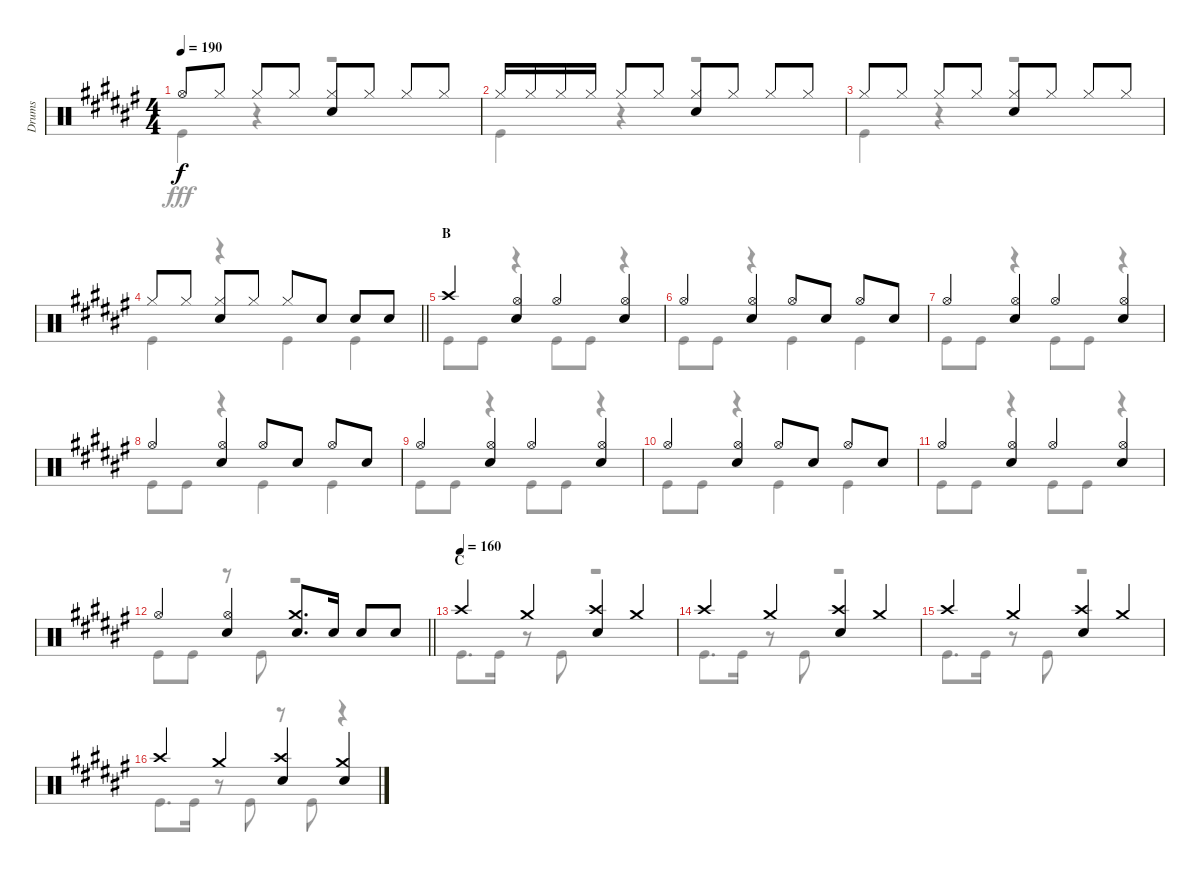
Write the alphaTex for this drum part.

\track ("Drums" "Drums") {instrument percussion}
\staff {score}
\articulation defaults
\voice
\ts (4 4)
\tempo 190
\clef neutral
\ks f# "Hi-Hat (open)".8{dy f} "Hi-Hat (closed)".8 "Hi-Hat (closed)".8 "Hi-Hat (closed)".8
("Hi-Hat (closed)" "Snare (hit) 2").8 "Hi-Hat (closed)".8 "Hi-Hat (closed)".8 "Hi-Hat (closed)".8 |
"Hi-Hat (closed)".16 "Hi-Hat (closed)".16 "Hi-Hat (closed)".16 "Hi-Hat (closed)".16 "Hi-Hat (closed)".8 "Hi-Hat (closed)".8 ("Hi-Hat (closed)" "Snare (hit) 2").8 "Hi-Hat (closed)".8 "Hi-Hat (closed)".8 "Hi-Hat (closed)".8 |
"Hi-Hat (closed)".8 "Hi-Hat (closed)".8 "Hi-Hat (closed)".8 "Hi-Hat (closed)".8 ("Hi-Hat (closed)" "Snare (hit) 2").8 "Hi-Hat (closed)".8 "Hi-Hat (closed)".8 "Hi-Hat (closed)".8 |
\barLineRight lightlight "Hi-Hat (closed)".8 "Hi-Hat (closed)".8
("Hi-Hat (closed)" "Snare (hit) 2").8 "Hi-Hat (closed)".8 "Hi-Hat (closed)".8 "Snare (hit) 2".8 "Snare (hit) 2".8 "Snare (hit) 2".8 |
\section ("" "B")
"Crash high (hit)".4 ("Hi-Hat (open)" "Snare (hit) 2").4 "Hi-Hat (open)".4 ("Hi-Hat (open)" "Snare (hit) 2").4 |
"Hi-Hat (open)".4 ("Hi-Hat (open)" "Snare (hit) 2").4 "Hi-Hat (open)".8 "Snare (hit) 2".8 "Hi-Hat (open)".8 "Snare (hit) 2".8 |
"Hi-Hat (open)".4 ("Hi-Hat (open)" "Snare (hit) 2").4 "Hi-Hat (open)".4 ("Hi-Hat (open)" "Snare (hit) 2").4 |
"Hi-Hat (open)".4 ("Hi-Hat (open)" "Snare (hit) 2").4 "Hi-Hat (open)".8 "Snare (hit) 2".8 "Hi-Hat (open)".8 "Snare (hit) 2".8 |
"Hi-Hat (open)".4 ("Hi-Hat (open)" "Snare (hit) 2").4 "Hi-Hat (open)".4 ("Hi-Hat (open)" "Snare (hit) 2").4 |
"Hi-Hat (open)".4 ("Hi-Hat (open)" "Snare (hit) 2").4 "Hi-Hat (open)".8 "Snare (hit) 2".8 "Hi-Hat (open)".8 "Snare (hit) 2".8 |
"Hi-Hat (open)".4 ("Hi-Hat (open)" "Snare (hit) 2").4 "Hi-Hat (open)".4 ("Hi-Hat (open)" "Snare (hit) 2").4 |
\barLineRight lightlight "Hi-Hat (open)".4
("Hi-Hat (open)" "Snare (hit) 2").4 ("Crash medium (hit)" "Snare (hit) 2").8{d} "Snare (hit) 2".16 "Snare (hit) 2".8 "Snare (hit) 2".8 |
\section ("" "C")
\tempo (160)
"Crash high (hit)".4 "Crash medium (hit)".4 ("Crash high (hit)" "Snare (hit) 2").4 "Crash medium (hit)".4 |
"Crash high (hit)".4 "Crash medium (hit)".4 ("Crash high (hit)" "Snare (hit) 2").4 "Crash medium (hit)".4 |
"Crash high (hit)".4 "Crash medium (hit)".4 ("Crash high (hit)" "Snare (hit) 2").4 "Crash medium (hit)".4 |
"Crash high (hit)".4 "Crash medium (hit)".4 ("Crash high (hit)" "Snare (hit) 2").4 ("Crash medium (hit)" "Snare (hit) 2").4
\voice
\clef neutral
\ottava regular
\simile none
\ks f# "Kick (hit)".4{dy fff}
r.4 r.2 |
"Kick (hit)".4 r.4 r.2 |
"Kick (hit)".4 r.4 r.2 |
\barLineRight lightlight "Kick (hit)".4
r.4 "Kick (hit)".4 "Kick (hit)".4 |
"Kick (hit)".8 "Kick (hit)".8 r.4 "Kick (hit)".8 "Kick (hit)".8 r.4 |
"Kick (hit)".8 "Kick (hit)".8 r.4 "Kick (hit)".4 "Kick (hit)".4 |
"Kick (hit)".8 "Kick (hit)".8 r.4 "Kick (hit)".8 "Kick (hit)".8 r.4 |
"Kick (hit)".8 "Kick (hit)".8 r.4 "Kick (hit)".4 "Kick (hit)".4 |
"Kick (hit)".8 "Kick (hit)".8 r.4 "Kick (hit)".8 "Kick (hit)".8 r.4 |
"Kick (hit)".8 "Kick (hit)".8 r.4 "Kick (hit)".4 "Kick (hit)".4 |
"Kick (hit)".8 "Kick (hit)".8 r.4 "Kick (hit)".8 "Kick (hit)".8 r.4 |
\barLineRight lightlight "Kick (hit)".8 "Kick (hit)".8
r.8 "Kick (hit)".8 r.2 |
"Kick (hit)".8{d} "Kick (hit)".16 r.8 "Kick (hit)".8 r.2 |
"Kick (hit)".8{d} "Kick (hit)".16 r.8 "Kick (hit)".8 r.2 |
"Kick (hit)".8{d} "Kick (hit)".16 r.8 "Kick (hit)".8 r.2 |
"Kick (hit)".8{d} "Kick (hit)".16 r.8 "Kick (hit)".8 r.8 "Kick (hit)".8 r.4
